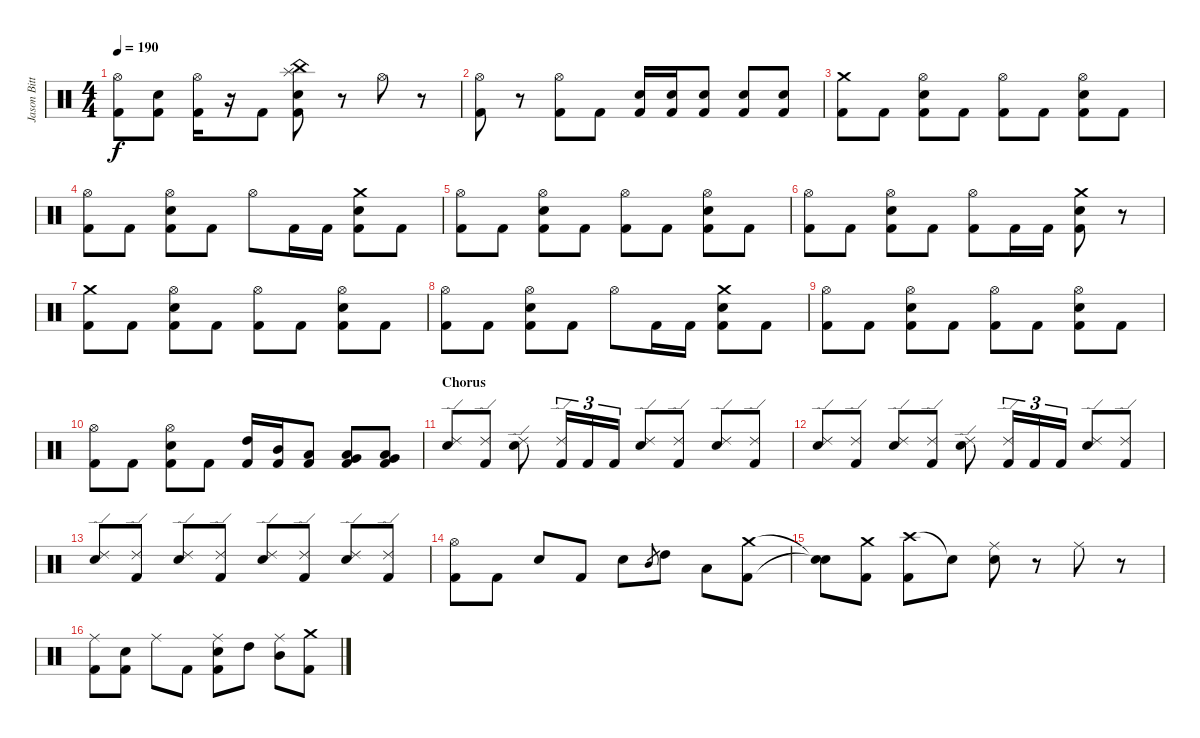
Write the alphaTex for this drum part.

\track ("Jason Bittner" "Jason Bitt") {instrument percussion}
\staff {score}
\articulation defaults
\ts (4 4)
\tempo 190
\clef neutral
\ks c
("Hi-Hat (open)" "Kick (hit) 2").8{dy f} ("Snare (hit) 2" "Kick (hit) 2").8 ("Hi-Hat (open)" "Kick (hit) 2").16 r.16 "Kick (hit) 2".8 ("Splash (hit)" "China (hit)" "Snare (hit) 2" "Kick (hit) 2").8 r.8 "Hi-Hat (open)".8 r.8 |
("Hi-Hat (open)" "Kick (hit) 2").8 r.8 ("Hi-Hat (open)" "Kick (hit) 2").8 "Kick (hit) 2".8 ("Snare (hit) 2" "Kick (hit) 2").16 ("Snare (hit) 2" "Kick (hit) 2").16 ("Snare (hit) 2" "Kick (hit) 2").8 ("Snare (hit) 2" "Kick (hit) 2").8 ("Snare (hit) 2" "Kick (hit) 2").8 |
("Crash medium (hit)" "Kick (hit) 2").8 "Kick (hit) 2".8 ("Hi-Hat (open)" "Snare (hit) 2" "Kick (hit) 2").8 "Kick (hit) 2".8 ("Hi-Hat (open)" "Kick (hit) 2").8 "Kick (hit) 2".8 ("Hi-Hat (open)" "Snare (hit) 2" "Kick (hit) 2").8 "Kick (hit) 2".8 |
("Hi-Hat (open)" "Kick (hit) 2").8 "Kick (hit) 2".8 ("Hi-Hat (open)" "Snare (hit) 2" "Kick (hit) 2").8 "Kick (hit) 2".8 "Hi-Hat (open)".8 "Kick (hit) 2".16 "Kick (hit) 2".16 ("Crash medium (hit)" "Snare (hit) 2" "Kick (hit) 2").8 "Kick (hit) 2".8 |
("Hi-Hat (open)" "Kick (hit) 2").8 "Kick (hit) 2".8 ("Hi-Hat (open)" "Snare (hit) 2" "Kick (hit) 2").8 "Kick (hit) 2".8 ("Hi-Hat (open)" "Kick (hit) 2").8 "Kick (hit) 2".8 ("Hi-Hat (open)" "Snare (hit) 2" "Kick (hit) 2").8 "Kick (hit) 2".8 |
("Hi-Hat (open)" "Kick (hit) 2").8 "Kick (hit) 2".8 ("Hi-Hat (open)" "Snare (hit) 2" "Kick (hit) 2").8 "Kick (hit) 2".8 ("Hi-Hat (open)" "Kick (hit) 2").8 "Kick (hit) 2".16 "Kick (hit) 2".16 ("Crash medium (hit)" "Snare (hit) 2" "Kick (hit) 2").8 r.8 |
("Crash medium (hit)" "Kick (hit) 2").8 "Kick (hit) 2".8 ("Hi-Hat (open)" "Snare (hit) 2" "Kick (hit) 2").8 "Kick (hit) 2".8 ("Hi-Hat (open)" "Kick (hit) 2").8 "Kick (hit) 2".8 ("Hi-Hat (open)" "Snare (hit) 2" "Kick (hit) 2").8 "Kick (hit) 2".8 |
("Hi-Hat (open)" "Kick (hit) 2").8 "Kick (hit) 2".8 ("Hi-Hat (open)" "Snare (hit) 2" "Kick (hit) 2").8 "Kick (hit) 2".8 "Hi-Hat (open)".8 "Kick (hit) 2".16 "Kick (hit) 2".16 ("Crash medium (hit)" "Snare (hit) 2" "Kick (hit) 2").8 "Kick (hit) 2".8 |
("Hi-Hat (open)" "Kick (hit) 2").8 "Kick (hit) 2".8 ("Hi-Hat (open)" "Snare (hit) 2" "Kick (hit) 2").8 "Kick (hit) 2".8 ("Hi-Hat (open)" "Kick (hit) 2").8 "Kick (hit) 2".8 ("Hi-Hat (open)" "Snare (hit) 2" "Kick (hit) 2").8 "Kick (hit) 2".8 |
("Hi-Hat (open)" "Kick (hit) 2").8 "Kick (hit) 2".8 ("Hi-Hat (open)" "Snare (hit) 2" "Kick (hit) 2").8 "Kick (hit) 2".8 ("High Tom (hit)" "Kick (hit) 2").16 ("Mid Tom (hit)" "Kick (hit) 2").16 ("Low Tom (hit)" "Kick (hit) 2").8 ("Low Floor Tom (hit)" "Very Low Tom (hit)" "Kick (hit) 2").8 ("Low Floor Tom (hit)" "Very Low Tom (hit)" "Kick (hit) 2").8 |
\section ("" "Chorus")
("Ride (edge) 2" "Snare (hit) 2").8 ("Ride (edge) 2" "Kick (hit) 2").8 ("Ride (edge) 2" "Snare (hit) 2").8 ("Ride (edge) 2" "Kick (hit) 2").16{tu (3 2)} "Kick (hit) 2".16{tu (3 2)} "Kick (hit) 2".16{tu (3 2)} ("Ride (edge) 2" "Snare (hit) 2").8 ("Ride (edge) 2" "Kick (hit) 2").8 ("Ride (edge) 2" "Snare (hit) 2").8 ("Ride (edge) 2" "Kick (hit) 2").8 |
("Ride (edge) 2" "Snare (hit) 2").8 ("Ride (edge) 2" "Kick (hit) 2").8 ("Ride (edge) 2" "Snare (hit) 2").8 ("Ride (edge) 2" "Kick (hit) 2").8 ("Ride (edge) 2" "Snare (hit) 2").8 ("Ride (edge) 2" "Kick (hit) 2").16{tu (3 2)} "Kick (hit) 2".16{tu (3 2)} "Kick (hit) 2".16{tu (3 2)} ("Ride (edge) 2" "Snare (hit) 2").8 ("Ride (edge) 2" "Kick (hit) 2").8 |
("Ride (edge) 2" "Snare (hit) 2").8 ("Ride (edge) 2" "Kick (hit) 2").8 ("Ride (edge) 2" "Snare (hit) 2").8 ("Ride (edge) 2" "Kick (hit) 2").8 ("Ride (edge) 2" "Snare (hit) 2").8 ("Ride (edge) 2" "Kick (hit) 2").8 ("Ride (edge) 2" "Snare (hit) 2").8 ("Ride (edge) 2" "Kick (hit) 2").8 |
("Hi-Hat (open)" "Kick (hit) 2").8 "Kick (hit) 2".8 "Snare (hit) 2".8 "Kick (hit) 2".8 "Snare (hit) 2".8 "Mid Tom (hit)".8{gr} "High Tom (hit)".8 "Low Tom (hit)".8 ("Crash medium (hit)" "Kick (hit) 2").8 |
("Snare (hit)"{t} "Snare (hit)"{t}).8 ("Crash medium (hit)" "Kick (hit) 2").8 ("Crash high (hit)" "Kick (hit) 2").8 "Snare (hit)"{t}.8 ("Ride (middle)" "Snare (hit) 2").8 r.8 "Ride (middle)".8 r.8 |
("Ride (middle)" "Kick (hit) 2").8 ("Snare (hit) 2" "Kick (hit) 2").8 "Ride (middle)".8 "Kick (hit) 2".8 ("Ride (middle)" "Snare (hit) 2" "Kick (hit) 2").8 "High Tom (hit)".8 ("Ride (middle)" "Mid Tom (hit)").8 ("Crash medium (hit)" "Kick (hit) 2").8
